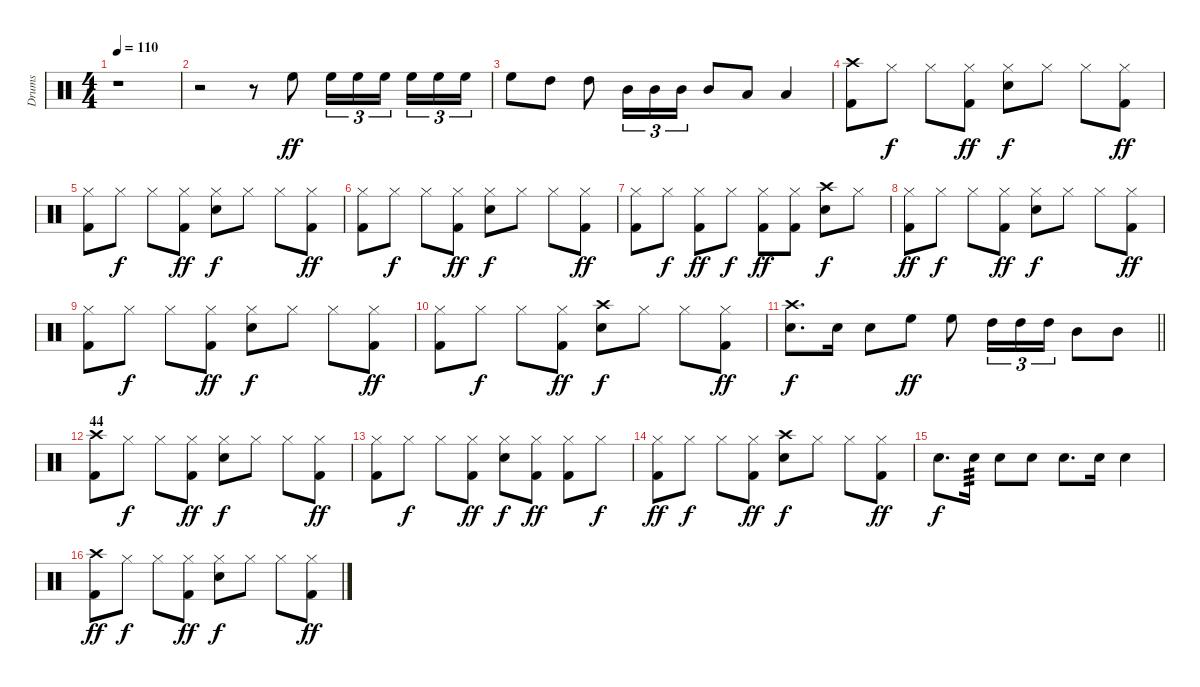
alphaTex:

\track ("Drums" "Drums") {instrument percussion}
\staff {score}
\articulation defaults
\ts (4 4)
\tempo 110
\clef neutral
\ks c
r.1{dy ff volume 5} |
r.2 r.8{volume 15} "High Floor Tom (hit)".8 "High Floor Tom (hit)".16{tu (3 2)} "High Floor Tom (hit)".16{tu (3 2)} "High Floor Tom (hit)".16{tu (3 2) beam splitsecondary} "High Floor Tom (hit)".16{tu (3 2)} "High Floor Tom (hit)".16{tu (3 2)} "High Floor Tom (hit)".16{tu (3 2)} |
"High Floor Tom (hit)".8 "High Tom (hit)".8 "High Tom (hit)".8 "Mid Tom (hit)".16{tu (3 2)} "Mid Tom (hit)".16{tu (3 2)} "Mid Tom (hit)".16{tu (3 2)} "Mid Tom (hit)".8 "Low Tom (hit)".8 "Low Tom (hit)".4 |
("Crash high (hit)" "Kick (hit) 2").8 "Hi-Hat (closed)".8{dy f} "Hi-Hat (closed)".8 ("Hi-Hat (closed)" "Kick (hit) 2").8{dy ff} ("Hi-Hat (closed)" "Snare (hit) 2").8{dy f} "Hi-Hat (closed)".8 "Hi-Hat (closed)".8 ("Hi-Hat (closed)" "Kick (hit) 2").8{dy ff} |
("Hi-Hat (closed)" "Kick (hit) 2").8 "Hi-Hat (closed)".8{dy f} "Hi-Hat (closed)".8 ("Hi-Hat (closed)" "Kick (hit) 2").8{dy ff} ("Hi-Hat (closed)" "Snare (hit) 2").8{dy f} "Hi-Hat (closed)".8 "Hi-Hat (closed)".8 ("Hi-Hat (closed)" "Kick (hit) 2").8{dy ff} |
("Hi-Hat (closed)" "Kick (hit) 2").8 "Hi-Hat (closed)".8{dy f} "Hi-Hat (closed)".8 ("Hi-Hat (closed)" "Kick (hit) 2").8{dy ff} ("Hi-Hat (closed)" "Snare (hit) 2").8{dy f} "Hi-Hat (closed)".8 "Hi-Hat (closed)".8 ("Hi-Hat (closed)" "Kick (hit) 2").8{dy ff} |
("Hi-Hat (closed)" "Kick (hit) 2").8 "Hi-Hat (closed)".8{dy f} ("Hi-Hat (closed)" "Kick (hit) 2").8{dy ff} "Hi-Hat (closed)".8{dy f} ("Hi-Hat (closed)" "Kick (hit) 2").8{dy ff} ("Hi-Hat (closed)" "Kick (hit) 2").8 ("Crash high (hit)" "Snare (hit) 2").8{dy f} "Hi-Hat (closed)".8 |
("Hi-Hat (closed)" "Kick (hit) 2").8{dy ff} "Hi-Hat (closed)".8{dy f} "Hi-Hat (closed)".8 ("Hi-Hat (closed)" "Kick (hit) 2").8{dy ff} ("Hi-Hat (closed)" "Snare (hit) 2").8{dy f} "Hi-Hat (closed)".8 "Hi-Hat (closed)".8 ("Hi-Hat (closed)" "Kick (hit) 2").8{dy ff} |
("Hi-Hat (closed)" "Kick (hit) 2").8 "Hi-Hat (closed)".8{dy f} "Hi-Hat (closed)".8 ("Hi-Hat (closed)" "Kick (hit) 2").8{dy ff} ("Hi-Hat (closed)" "Snare (hit) 2").8{dy f} "Hi-Hat (closed)".8 "Hi-Hat (closed)".8 ("Hi-Hat (closed)" "Kick (hit) 2").8{dy ff} |
("Hi-Hat (closed)" "Kick (hit) 2").8 "Hi-Hat (closed)".8{dy f} "Hi-Hat (closed)".8 ("Hi-Hat (closed)" "Kick (hit) 2").8{dy ff} ("Crash high (hit)" "Snare (hit) 2").8{dy f} "Hi-Hat (closed)".8 "Hi-Hat (closed)".8 ("Hi-Hat (closed)" "Kick (hit) 2").8{dy ff} |
\barLineRight lightlight
("Crash high (hit)" "Snare (hit) 2").8{d dy f} "Snare (hit) 2".16 "Snare (hit) 2".8 "High Floor Tom (hit)".8{dy ff} "High Floor Tom (hit)".8 "High Tom (hit)".16{tu (3 2)} "High Tom (hit)".16{tu (3 2)} "High Tom (hit)".16{tu (3 2)} "Mid Tom (hit)".8 "Mid Tom (hit)".8 |
\section ("" "44")
("Crash high (hit)" "Kick (hit) 2").8 "Hi-Hat (closed)".8{dy f} "Hi-Hat (closed)".8 ("Hi-Hat (closed)" "Kick (hit) 2").8{dy ff} ("Hi-Hat (closed)" "Snare (hit) 2").8{dy f} "Hi-Hat (closed)".8 "Hi-Hat (closed)".8 ("Hi-Hat (closed)" "Kick (hit) 2").8{dy ff} |
("Hi-Hat (closed)" "Kick (hit) 2").8 "Hi-Hat (closed)".8{dy f} "Hi-Hat (closed)".8 ("Hi-Hat (closed)" "Kick (hit) 2").8{dy ff} ("Hi-Hat (closed)" "Snare (hit) 2").8{dy f} ("Hi-Hat (closed)" "Kick (hit) 2").8{dy ff} ("Hi-Hat (closed)" "Kick (hit) 2").8 "Hi-Hat (closed)".8{dy f} |
("Hi-Hat (closed)" "Kick (hit) 2").8{dy ff} "Hi-Hat (closed)".8{dy f} "Hi-Hat (closed)".8 ("Hi-Hat (closed)" "Kick (hit) 2").8{dy ff} ("Crash high (hit)" "Snare (hit) 2").8{dy f} "Hi-Hat (closed)".8 "Hi-Hat (closed)".8 ("Hi-Hat (closed)" "Kick (hit) 2").8{dy ff} |
"Snare (hit) 2".8{d dy f} "Snare (hit) 2".16{tp 3} "Snare (hit) 2".8 "Snare (hit) 2".8 "Snare (hit) 2".8{d} "Snare (hit) 2".16 "Snare (hit) 2".4 |
("Crash high (hit)" "Kick (hit) 2").8{dy ff} "Hi-Hat (closed)".8{dy f} "Hi-Hat (closed)".8 ("Hi-Hat (closed)" "Kick (hit) 2").8{dy ff} ("Hi-Hat (closed)" "Snare (hit) 2").8{dy f} "Hi-Hat (closed)".8 "Hi-Hat (closed)".8 ("Hi-Hat (closed)" "Kick (hit) 2").8{dy ff}
